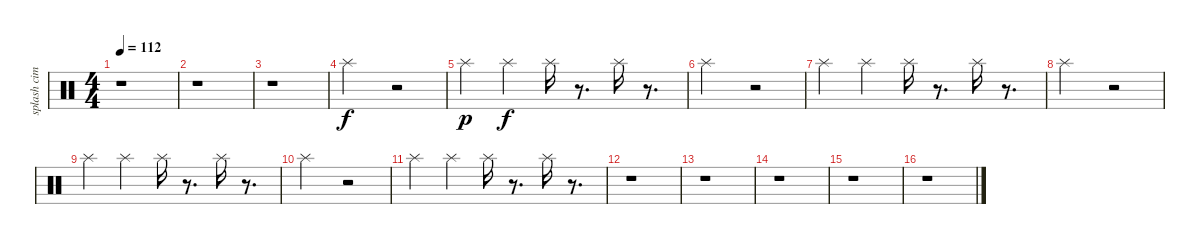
\track ("splash cimbal" "splash cim") {instrument percussion}
\staff {score}
\articulation defaults
\ts (4 4)
\tempo 112
\clef neutral
\ks c
r.1{dy f} |
r.1 |
r.1 |
"Splash (hit)".2 r.2 |
"Splash (hit)".4{dy p} "Splash (hit)".4{dy f} "Splash (hit)".16 r.8{d} "Splash (hit)".16 r.8{d} |
"Splash (hit)".2 r.2 |
"Splash (hit)".4 "Splash (hit)".4 "Splash (hit)".16 r.8{d} "Splash (hit)".16 r.8{d} |
"Splash (hit)".2 r.2 |
"Splash (hit)".4 "Splash (hit)".4 "Splash (hit)".16 r.8{d} "Splash (hit)".16 r.8{d} |
"Splash (hit)".2 r.2 |
"Splash (hit)".4 "Splash (hit)".4 "Splash (hit)".16 r.8{d} "Splash (hit)".16 r.8{d} |
r.1 |
r.1 |
r.1 |
r.1 |
r.1
